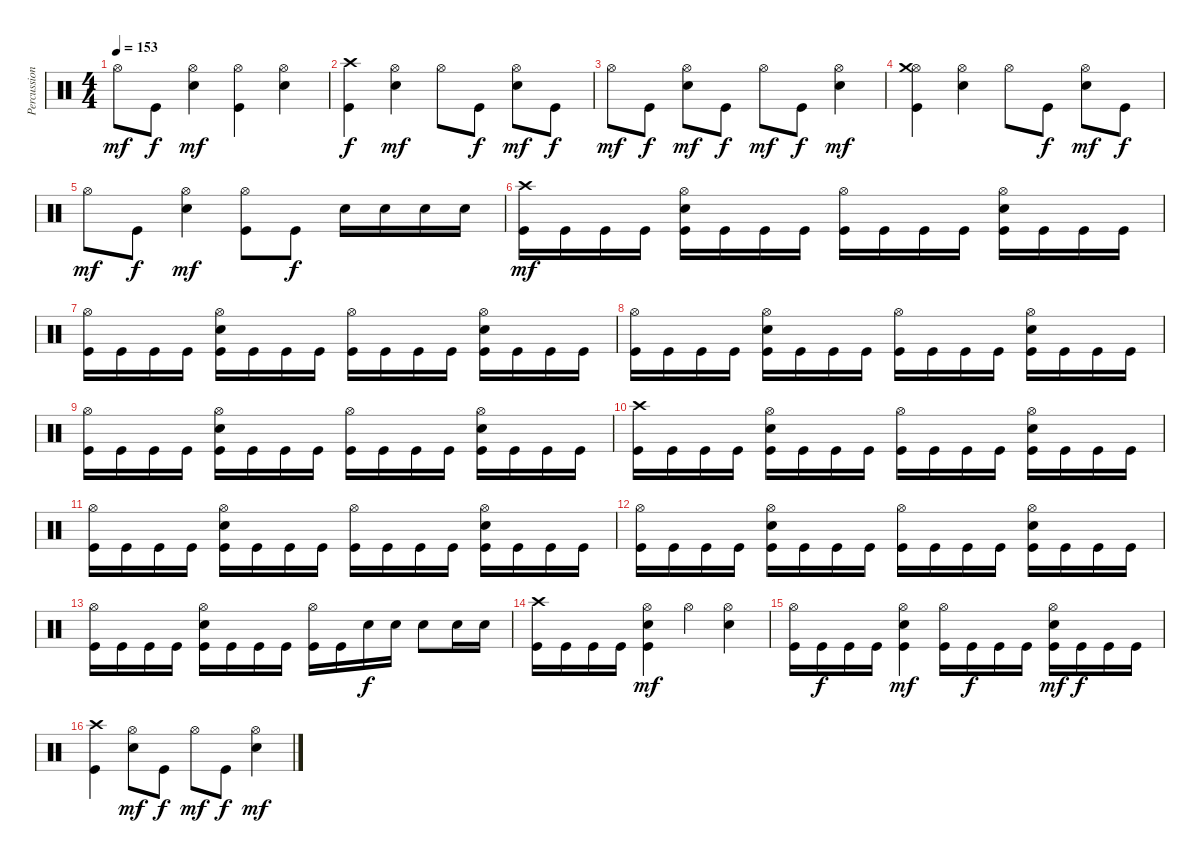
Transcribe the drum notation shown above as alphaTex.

\track ("Percussions" "Percussion") {instrument percussion}
\staff {score}
\articulation defaults
\ts (4 4)
\tempo 153
\clef neutral
\ks c "Hi-Hat (open)".8{dy mf} "Kick (hit)".8{dy f}
("Electric Snare (hit)" "Hi-Hat (open)").4{dy mf} ("Kick (hit)" "Hi-Hat (open)").4 ("Electric Snare (hit)" "Hi-Hat (open)").4 |
("Kick (hit)" "Crash high (hit)").4{dy f} ("Electric Snare (hit)" "Hi-Hat (open)").4{dy mf} "Hi-Hat (open)".8 "Kick (hit)".8{dy f} ("Electric Snare (hit)" "Hi-Hat (open)").8{dy mf} "Kick (hit)".8{dy f} |
"Hi-Hat (open)".8{dy mf} "Kick (hit)".8{dy f} ("Electric Snare (hit)" "Hi-Hat (open)").8{dy mf} "Kick (hit)".8{dy f} "Hi-Hat (open)".8{dy mf} "Kick (hit)".8{dy f} ("Electric Snare (hit)" "Hi-Hat (open)").4{dy mf} |
("Kick (hit)" "Hi-Hat (open)" "Crash medium (hit)").4 ("Electric Snare (hit)" "Hi-Hat (open)").4 "Hi-Hat (open)".8 "Kick (hit)".8{dy f} ("Electric Snare (hit)" "Hi-Hat (open)").8{dy mf} "Kick (hit)".8{dy f} |
"Hi-Hat (open)".8{dy mf} "Kick (hit)".8{dy f} ("Electric Snare (hit)" "Hi-Hat (open)").4{dy mf} ("Kick (hit)" "Hi-Hat (open)").8 "Kick (hit)".8{dy f} "Electric Snare (hit)".16 "Electric Snare (hit)".16 "Electric Snare (hit)".16 "Electric Snare (hit)".16 |
("Kick (hit)" "Crash high (hit)").16{dy mf} "Kick (hit)".16 "Kick (hit)".16 "Kick (hit)".16 ("Kick (hit)" "Electric Snare (hit)" "Hi-Hat (open)").16 "Kick (hit)".16 "Kick (hit)".16 "Kick (hit)".16 ("Kick (hit)" "Hi-Hat (open)").16 "Kick (hit)".16 "Kick (hit)".16 "Kick (hit)".16 ("Kick (hit)" "Electric Snare (hit)" "Hi-Hat (open)").16 "Kick (hit)".16 "Kick (hit)".16 "Kick (hit)".16 |
("Kick (hit)" "Hi-Hat (open)").16 "Kick (hit)".16 "Kick (hit)".16 "Kick (hit)".16 ("Kick (hit)" "Electric Snare (hit)" "Hi-Hat (open)").16 "Kick (hit)".16 "Kick (hit)".16 "Kick (hit)".16 ("Kick (hit)" "Hi-Hat (open)").16 "Kick (hit)".16 "Kick (hit)".16 "Kick (hit)".16 ("Kick (hit)" "Electric Snare (hit)" "Hi-Hat (open)").16 "Kick (hit)".16 "Kick (hit)".16 "Kick (hit)".16 |
("Kick (hit)" "Hi-Hat (open)").16 "Kick (hit)".16 "Kick (hit)".16 "Kick (hit)".16 ("Kick (hit)" "Electric Snare (hit)" "Hi-Hat (open)").16 "Kick (hit)".16 "Kick (hit)".16 "Kick (hit)".16 ("Kick (hit)" "Hi-Hat (open)").16 "Kick (hit)".16 "Kick (hit)".16 "Kick (hit)".16 ("Kick (hit)" "Electric Snare (hit)" "Hi-Hat (open)").16 "Kick (hit)".16 "Kick (hit)".16 "Kick (hit)".16 |
("Kick (hit)" "Hi-Hat (open)").16 "Kick (hit)".16 "Kick (hit)".16 "Kick (hit)".16 ("Kick (hit)" "Electric Snare (hit)" "Hi-Hat (open)").16 "Kick (hit)".16 "Kick (hit)".16 "Kick (hit)".16 ("Kick (hit)" "Hi-Hat (open)").16 "Kick (hit)".16 "Kick (hit)".16 "Kick (hit)".16 ("Kick (hit)" "Electric Snare (hit)" "Hi-Hat (open)").16 "Kick (hit)".16 "Kick (hit)".16 "Kick (hit)".16 |
("Kick (hit)" "Crash high (hit)").16 "Kick (hit)".16 "Kick (hit)".16 "Kick (hit)".16 ("Kick (hit)" "Electric Snare (hit)" "Hi-Hat (open)").16 "Kick (hit)".16 "Kick (hit)".16 "Kick (hit)".16 ("Kick (hit)" "Hi-Hat (open)").16 "Kick (hit)".16 "Kick (hit)".16 "Kick (hit)".16 ("Kick (hit)" "Electric Snare (hit)" "Hi-Hat (open)").16 "Kick (hit)".16 "Kick (hit)".16 "Kick (hit)".16 |
("Kick (hit)" "Hi-Hat (open)").16 "Kick (hit)".16 "Kick (hit)".16 "Kick (hit)".16 ("Kick (hit)" "Electric Snare (hit)" "Hi-Hat (open)").16 "Kick (hit)".16 "Kick (hit)".16 "Kick (hit)".16 ("Kick (hit)" "Hi-Hat (open)").16 "Kick (hit)".16 "Kick (hit)".16 "Kick (hit)".16 ("Kick (hit)" "Electric Snare (hit)" "Hi-Hat (open)").16 "Kick (hit)".16 "Kick (hit)".16 "Kick (hit)".16 |
("Kick (hit)" "Hi-Hat (open)").16 "Kick (hit)".16 "Kick (hit)".16 "Kick (hit)".16 ("Kick (hit)" "Electric Snare (hit)" "Hi-Hat (open)").16 "Kick (hit)".16 "Kick (hit)".16 "Kick (hit)".16 ("Kick (hit)" "Hi-Hat (open)").16 "Kick (hit)".16 "Kick (hit)".16 "Kick (hit)".16 ("Kick (hit)" "Electric Snare (hit)" "Hi-Hat (open)").16 "Kick (hit)".16 "Kick (hit)".16 "Kick (hit)".16 |
("Kick (hit)" "Hi-Hat (open)").16 "Kick (hit)".16 "Kick (hit)".16 "Kick (hit)".16 ("Kick (hit)" "Electric Snare (hit)" "Hi-Hat (open)").16 "Kick (hit)".16 "Kick (hit)".16 "Kick (hit)".16 ("Kick (hit)" "Hi-Hat (open)").16 "Kick (hit)".16 "Electric Snare (hit)".16{dy f} "Electric Snare (hit)".16 "Electric Snare (hit)".8 "Electric Snare (hit)".16 "Electric Snare (hit)".16 |
("Kick (hit)" "Crash high (hit)").16 "Kick (hit)".16 "Kick (hit)".16 "Kick (hit)".16 ("Kick (hit)" "Electric Snare (hit)" "Hi-Hat (open)").4{dy mf} "Hi-Hat (open)".4 ("Electric Snare (hit)" "Hi-Hat (open)").4 |
("Kick (hit)" "Hi-Hat (open)").16 "Kick (hit)".16{dy f} "Kick (hit)".16 "Kick (hit)".16 ("Kick (hit)" "Electric Snare (hit)" "Hi-Hat (open)").4{dy mf} ("Kick (hit)" "Hi-Hat (open)").16 "Kick (hit)".16{dy f} "Kick (hit)".16 "Kick (hit)".16 ("Kick (hit)" "Electric Snare (hit)" "Hi-Hat (open)").16{dy mf} "Kick (hit)".16{dy f} "Kick (hit)".16 "Kick (hit)".16 |
("Kick (hit)" "Crash high (hit)").4 ("Electric Snare (hit)" "Hi-Hat (open)").8{dy mf} "Kick (hit)".8{dy f} "Hi-Hat (open)".8{dy mf} "Kick (hit)".8{dy f} ("Electric Snare (hit)" "Hi-Hat (open)").4{dy mf}
